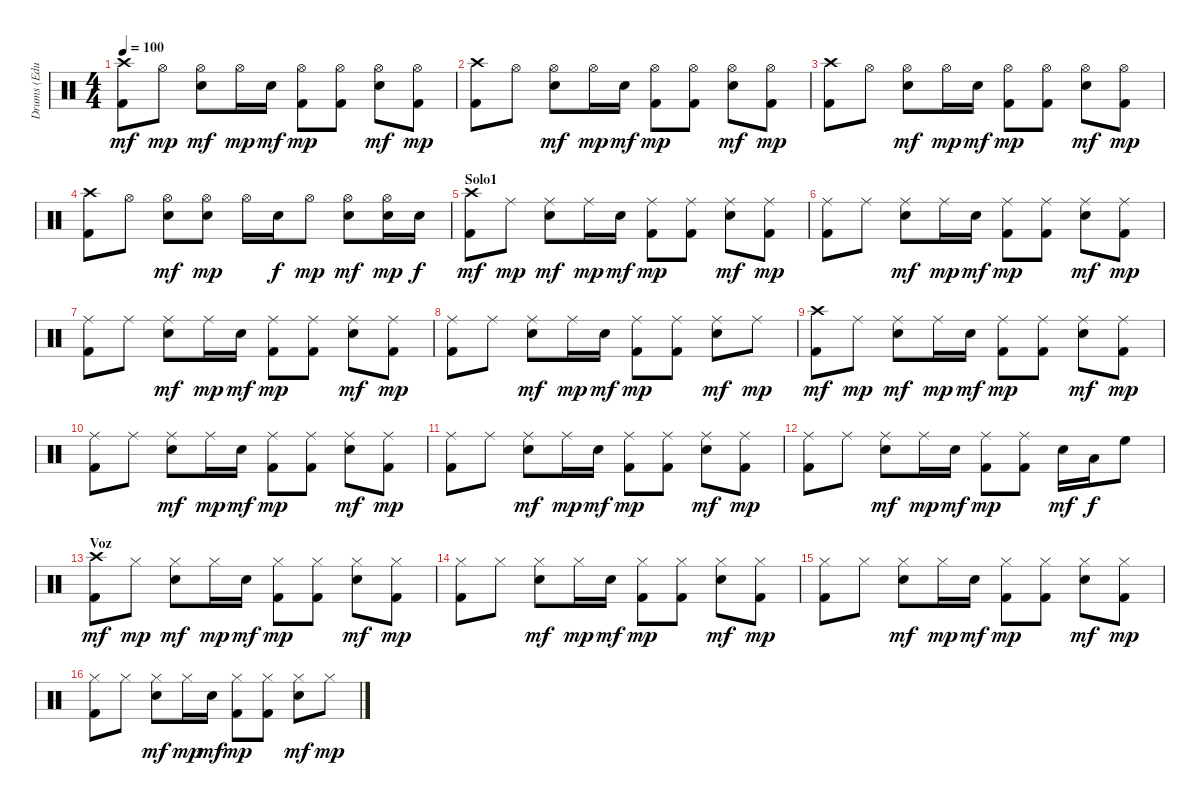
\track ("Drums (Eduardo)" "Drums (Edu") {instrument percussion}
\staff {score}
\articulation defaults
\ts (4 4)
\tempo 100
\clef neutral
\ks c
("Crash high (hit)" "Kick (hit) 2").8{dy mf} "Hi-Hat (open)".8{dy mp} ("Hi-Hat (open)" "Electric Snare (hit)").8{dy mf} "Hi-Hat (open)".16{dy mp} "Electric Snare (hit)".16{dy mf} ("Hi-Hat (open)" "Kick (hit) 2").8{dy mp} ("Hi-Hat (open)" "Kick (hit) 2").8 ("Hi-Hat (open)" "Electric Snare (hit)").8{dy mf} ("Hi-Hat (open)" "Kick (hit) 2").8{dy mp} |
("Crash high (hit)" "Kick (hit) 2").8 "Hi-Hat (open)".8 ("Hi-Hat (open)" "Electric Snare (hit)").8{dy mf} "Hi-Hat (open)".16{dy mp} "Electric Snare (hit)".16{dy mf} ("Hi-Hat (open)" "Kick (hit) 2").8{dy mp} ("Hi-Hat (open)" "Kick (hit) 2").8 ("Hi-Hat (open)" "Electric Snare (hit)").8{dy mf} ("Hi-Hat (open)" "Kick (hit) 2").8{dy mp} |
("Crash high (hit)" "Kick (hit) 2").8 "Hi-Hat (open)".8 ("Hi-Hat (open)" "Electric Snare (hit)").8{dy mf} "Hi-Hat (open)".16{dy mp} "Electric Snare (hit)".16{dy mf} ("Hi-Hat (open)" "Kick (hit) 2").8{dy mp} ("Hi-Hat (open)" "Kick (hit) 2").8 ("Hi-Hat (open)" "Electric Snare (hit)").8{dy mf} ("Hi-Hat (open)" "Kick (hit) 2").8{dy mp} |
("Crash high (hit)" "Kick (hit) 2").8 "Hi-Hat (open)".8 ("Hi-Hat (open)" "Electric Snare (hit)").8{dy mf} ("Hi-Hat (open)" "Electric Snare (hit)").8{dy mp} "Hi-Hat (open)".16 "Electric Snare (hit)".16{dy f} "Hi-Hat (open)".8{dy mp} ("Hi-Hat (open)" "Electric Snare (hit)").8{dy mf} ("Hi-Hat (open)" "Electric Snare (hit)").16{dy mp} "Electric Snare (hit)".16{dy f} |
\section ("" "Solo1")
("Crash high (hit)" "Kick (hit) 2").8{dy mf} "Ride (middle)".8{dy mp} ("Ride (middle)" "Electric Snare (hit)").8{dy mf} "Ride (middle)".16{dy mp} "Electric Snare (hit)".16{dy mf} ("Ride (middle)" "Kick (hit) 2").8{dy mp} ("Ride (middle)" "Kick (hit) 2").8 ("Ride (middle)" "Electric Snare (hit)").8{dy mf} ("Ride (middle)" "Kick (hit) 2").8{dy mp} |
("Ride (middle)" "Kick (hit) 2").8 "Ride (middle)".8 ("Ride (middle)" "Electric Snare (hit)").8{dy mf} "Ride (middle)".16{dy mp} "Electric Snare (hit)".16{dy mf} ("Ride (middle)" "Kick (hit) 2").8{dy mp} ("Ride (middle)" "Kick (hit) 2").8 ("Ride (middle)" "Electric Snare (hit)").8{dy mf} ("Ride (middle)" "Kick (hit) 2").8{dy mp} |
("Ride (middle)" "Kick (hit) 2").8 "Ride (middle)".8 ("Ride (middle)" "Electric Snare (hit)").8{dy mf} "Ride (middle)".16{dy mp} "Electric Snare (hit)".16{dy mf} ("Ride (middle)" "Kick (hit) 2").8{dy mp} ("Ride (middle)" "Kick (hit) 2").8 ("Ride (middle)" "Electric Snare (hit)").8{dy mf} ("Ride (middle)" "Kick (hit) 2").8{dy mp} |
("Ride (middle)" "Kick (hit) 2").8 "Ride (middle)".8 ("Ride (middle)" "Electric Snare (hit)").8{dy mf} "Ride (middle)".16{dy mp} "Electric Snare (hit)".16{dy mf} ("Ride (middle)" "Kick (hit) 2").8{dy mp} ("Ride (middle)" "Kick (hit) 2").8 ("Ride (middle)" "Electric Snare (hit)").8{dy mf} "Ride (middle)".8{dy mp} |
("Crash high (hit)" "Kick (hit) 2").8{dy mf} "Ride (middle)".8{dy mp} ("Ride (middle)" "Electric Snare (hit)").8{dy mf} "Ride (middle)".16{dy mp} "Electric Snare (hit)".16{dy mf} ("Ride (middle)" "Kick (hit) 2").8{dy mp} ("Ride (middle)" "Kick (hit) 2").8 ("Ride (middle)" "Electric Snare (hit)").8{dy mf} ("Ride (middle)" "Kick (hit) 2").8{dy mp} |
("Ride (middle)" "Kick (hit) 2").8 "Ride (middle)".8 ("Ride (middle)" "Electric Snare (hit)").8{dy mf} "Ride (middle)".16{dy mp} "Electric Snare (hit)".16{dy mf} ("Ride (middle)" "Kick (hit) 2").8{dy mp} ("Ride (middle)" "Kick (hit) 2").8 ("Ride (middle)" "Electric Snare (hit)").8{dy mf} ("Ride (middle)" "Kick (hit) 2").8{dy mp} |
("Ride (middle)" "Kick (hit) 2").8 "Ride (middle)".8 ("Ride (middle)" "Electric Snare (hit)").8{dy mf} "Ride (middle)".16{dy mp} "Electric Snare (hit)".16{dy mf} ("Ride (middle)" "Kick (hit) 2").8{dy mp} ("Ride (middle)" "Kick (hit) 2").8 ("Ride (middle)" "Electric Snare (hit)").8{dy mf} ("Ride (middle)" "Kick (hit) 2").8{dy mp} |
("Ride (middle)" "Kick (hit) 2").8 "Ride (middle)".8 ("Ride (middle)" "Electric Snare (hit)").8{dy mf} "Ride (middle)".16{dy mp} "Electric Snare (hit)".16{dy mf} ("Ride (middle)" "Kick (hit) 2").8{dy mp} ("Ride (middle)" "Kick (hit) 2").8 "Electric Snare (hit)".16{dy mf} "Low Tom (hit)".16{dy f} "High Floor Tom (hit)".8 |
\section ("" "Voz")
("Crash high (hit)" "Kick (hit) 2").8{dy mf} "Hi-Hat (closed)".8{dy mp} ("Hi-Hat (closed)" "Electric Snare (hit)").8{dy mf} "Hi-Hat (closed)".16{dy mp} "Electric Snare (hit)".16{dy mf} ("Hi-Hat (closed)" "Kick (hit) 2").8{dy mp} ("Hi-Hat (closed)" "Kick (hit) 2").8 ("Hi-Hat (closed)" "Electric Snare (hit)").8{dy mf} ("Hi-Hat (closed)" "Kick (hit) 2").8{dy mp} |
("Hi-Hat (closed)" "Kick (hit) 2").8 "Hi-Hat (closed)".8 ("Hi-Hat (closed)" "Electric Snare (hit)").8{dy mf} "Hi-Hat (closed)".16{dy mp} "Electric Snare (hit)".16{dy mf} ("Hi-Hat (closed)" "Kick (hit) 2").8{dy mp} ("Hi-Hat (closed)" "Kick (hit) 2").8 ("Hi-Hat (closed)" "Electric Snare (hit)").8{dy mf} ("Hi-Hat (closed)" "Kick (hit) 2").8{dy mp} |
("Hi-Hat (closed)" "Kick (hit) 2").8 "Hi-Hat (closed)".8 ("Hi-Hat (closed)" "Electric Snare (hit)").8{dy mf} "Hi-Hat (closed)".16{dy mp} "Electric Snare (hit)".16{dy mf} ("Hi-Hat (closed)" "Kick (hit) 2").8{dy mp} ("Hi-Hat (closed)" "Kick (hit) 2").8 ("Hi-Hat (closed)" "Electric Snare (hit)").8{dy mf} ("Hi-Hat (closed)" "Kick (hit) 2").8{dy mp} |
("Hi-Hat (closed)" "Kick (hit) 2").8 "Hi-Hat (closed)".8 ("Hi-Hat (closed)" "Electric Snare (hit)").8{dy mf} "Hi-Hat (closed)".16{dy mp} "Electric Snare (hit)".16{dy mf} ("Hi-Hat (closed)" "Kick (hit) 2").8{dy mp} ("Hi-Hat (closed)" "Kick (hit) 2").8 ("Hi-Hat (closed)" "Electric Snare (hit)").8{dy mf} "Hi-Hat (closed)".8{dy mp}
